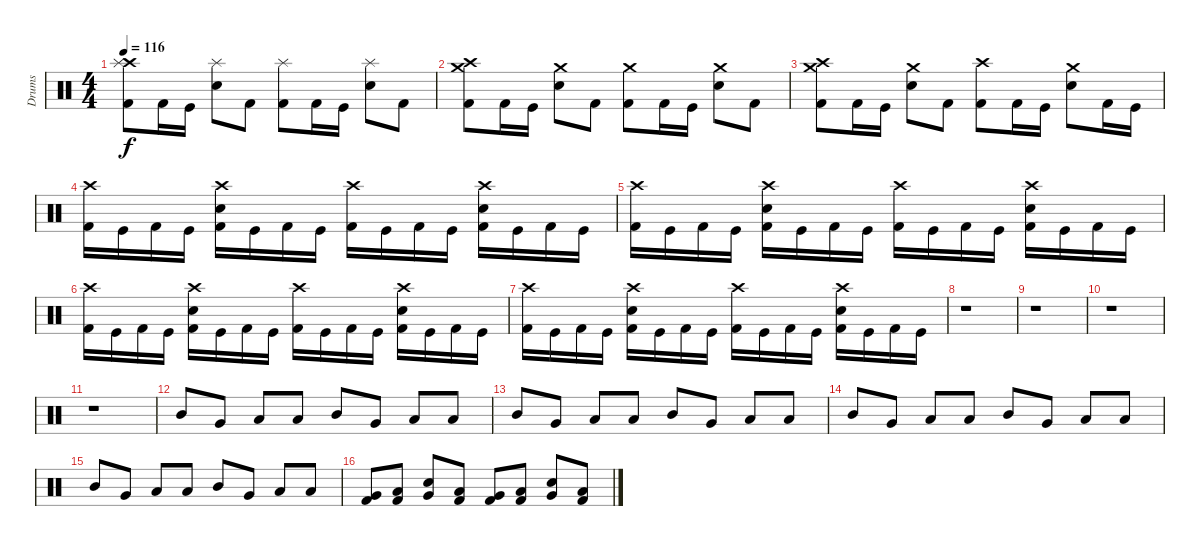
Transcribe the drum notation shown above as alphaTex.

\track ("Drums" "Drums") {instrument percussion}
\staff {score}
\articulation defaults
\ts (4 4)
\tempo 116
\clef neutral
\ks c
("Crash high (hit)" "Splash (hit)" "Kick (hit) 2").8{dy f} "Kick (hit) 2".16 "Kick (hit)".16 ("Splash (hit)" "Snare (hit) 2").8 "Kick (hit) 2".8 ("Splash (hit)" "Kick (hit) 2").8 "Kick (hit) 2".16 "Kick (hit)".16 ("Splash (hit)" "Snare (hit) 2").8 "Kick (hit) 2".8 |
("Crash medium (hit)" "Crash high (hit)" "Kick (hit) 2").8 "Kick (hit) 2".16 "Kick (hit)".16 ("Crash medium (hit)" "Snare (hit) 2").8 "Kick (hit) 2".8 ("Crash medium (hit)" "Kick (hit) 2").8 "Kick (hit) 2".16 "Kick (hit)".16 ("Crash medium (hit)" "Snare (hit) 2").8 "Kick (hit) 2".8 |
("Crash high (hit)" "Crash medium (hit)" "Kick (hit) 2").8 "Kick (hit) 2".16 "Kick (hit)".16 ("Crash medium (hit)" "Snare (hit) 2").8 "Kick (hit) 2".8 ("Crash high (hit)" "Kick (hit) 2").8 "Kick (hit) 2".16 "Kick (hit)".16 ("Crash medium (hit)" "Snare (hit) 2").8 "Kick (hit) 2".16 "Kick (hit)".16 |
("Crash high (hit)" "Kick (hit) 2").16 "Kick (hit)".16 "Kick (hit) 2".16 "Kick (hit)".16 ("Crash high (hit)" "Snare (hit) 2" "Kick (hit) 2").16 "Kick (hit)".16 "Kick (hit) 2".16 "Kick (hit)".16 ("Crash high (hit)" "Kick (hit) 2").16 "Kick (hit)".16 "Kick (hit) 2".16 "Kick (hit)".16 ("Crash high (hit)" "Snare (hit) 2" "Kick (hit) 2").16 "Kick (hit)".16 "Kick (hit) 2".16 "Kick (hit)".16 |
("Crash high (hit)" "Kick (hit) 2").16 "Kick (hit)".16 "Kick (hit) 2".16 "Kick (hit)".16 ("Crash high (hit)" "Snare (hit) 2" "Kick (hit) 2").16 "Kick (hit)".16 "Kick (hit) 2".16 "Kick (hit)".16 ("Crash high (hit)" "Kick (hit) 2").16 "Kick (hit)".16 "Kick (hit) 2".16 "Kick (hit)".16 ("Crash high (hit)" "Snare (hit) 2" "Kick (hit) 2").16 "Kick (hit)".16 "Kick (hit) 2".16 "Kick (hit)".16 |
("Crash high (hit)" "Kick (hit) 2").16 "Kick (hit)".16 "Kick (hit) 2".16 "Kick (hit)".16 ("Crash high (hit)" "Snare (hit) 2" "Kick (hit) 2").16 "Kick (hit)".16 "Kick (hit) 2".16 "Kick (hit)".16 ("Crash high (hit)" "Kick (hit) 2").16 "Kick (hit)".16 "Kick (hit) 2".16 "Kick (hit)".16 ("Crash high (hit)" "Snare (hit) 2" "Kick (hit) 2").16 "Kick (hit)".16 "Kick (hit) 2".16 "Kick (hit)".16 |
("Crash high (hit)" "Kick (hit) 2").16 "Kick (hit)".16 "Kick (hit) 2".16 "Kick (hit)".16 ("Crash high (hit)" "Snare (hit) 2" "Kick (hit) 2").16 "Kick (hit)".16 "Kick (hit) 2".16 "Kick (hit)".16 ("Crash high (hit)" "Kick (hit) 2").16 "Kick (hit)".16 "Kick (hit) 2".16 "Kick (hit)".16 ("Crash high (hit)" "Snare (hit) 2" "Kick (hit) 2").16 "Kick (hit)".16 "Kick (hit) 2".16 "Kick (hit)".16 |
r.1 |
r.1 |
r.1 |
r.1 |
"Mid Tom (hit)".8 "Very Low Tom (hit)".8 "Low Tom (hit)".8 "Low Floor Tom (hit)".8 "Mid Tom (hit)".8 "Very Low Tom (hit)".8 "Low Tom (hit)".8 "Low Floor Tom (hit)".8 |
"Mid Tom (hit)".8 "Very Low Tom (hit)".8 "Low Tom (hit)".8 "Low Floor Tom (hit)".8 "Mid Tom (hit)".8 "Very Low Tom (hit)".8 "Low Tom (hit)".8 "Low Floor Tom (hit)".8 |
"Mid Tom (hit)".8 "Very Low Tom (hit)".8 "Low Tom (hit)".8 "Low Floor Tom (hit)".8 "Mid Tom (hit)".8 "Very Low Tom (hit)".8 "Low Tom (hit)".8 "Low Floor Tom (hit)".8 |
"Mid Tom (hit)".8 "Very Low Tom (hit)".8 "Low Tom (hit)".8 "Low Floor Tom (hit)".8 "Mid Tom (hit)".8 "Very Low Tom (hit)".8 "Low Tom (hit)".8 "Low Floor Tom (hit)".8 |
("Very Low Tom (hit)" "Kick (hit) 2").8 ("Low Tom (hit)" "Kick (hit) 2").8 ("Very Low Tom (hit)" "Snare (hit) 2").8 ("Low Floor Tom (hit)" "Kick (hit) 2").8 ("Very Low Tom (hit)" "Kick (hit) 2").8 ("Low Tom (hit)" "Kick (hit) 2").8 ("Very Low Tom (hit)" "Snare (hit) 2").8 ("Low Floor Tom (hit)" "Kick (hit) 2").8
